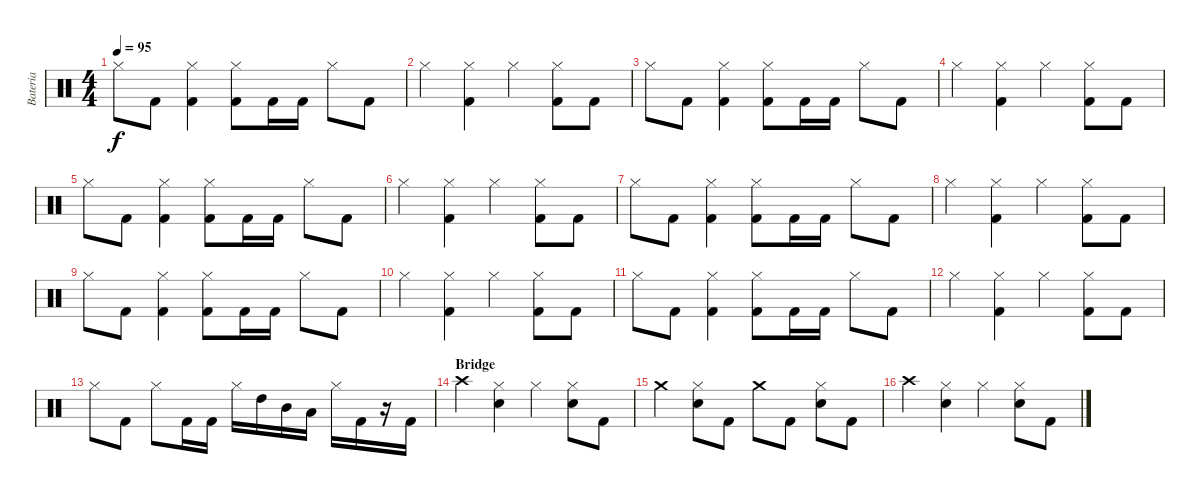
\track ("Bateria" "Bateria") {instrument percussion}
\staff {score}
\articulation defaults
\ts (4 4)
\tempo 95
\clef neutral
\ks c "Hi-Hat (closed)".8{dy f} "Kick (hit) 2".8
("Hi-Hat (closed)" "Kick (hit) 2").4 ("Hi-Hat (closed)" "Kick (hit) 2").8 "Kick (hit) 2".16 "Kick (hit) 2".16 "Hi-Hat (closed)".8 "Kick (hit) 2".8 |
"Hi-Hat (closed)".4 ("Hi-Hat (closed)" "Kick (hit) 2").4 "Hi-Hat (closed)".4 ("Hi-Hat (closed)" "Kick (hit) 2").8 "Kick (hit) 2".8 |
"Hi-Hat (closed)".8 "Kick (hit) 2".8 ("Hi-Hat (closed)" "Kick (hit) 2").4 ("Hi-Hat (closed)" "Kick (hit) 2").8 "Kick (hit) 2".16 "Kick (hit) 2".16 "Hi-Hat (closed)".8 "Kick (hit) 2".8 |
"Hi-Hat (closed)".4 ("Hi-Hat (closed)" "Kick (hit) 2").4 "Hi-Hat (closed)".4 ("Hi-Hat (closed)" "Kick (hit) 2").8 "Kick (hit) 2".8 |
"Hi-Hat (closed)".8 "Kick (hit) 2".8 ("Hi-Hat (closed)" "Kick (hit) 2").4 ("Hi-Hat (closed)" "Kick (hit) 2").8 "Kick (hit) 2".16 "Kick (hit) 2".16 "Hi-Hat (closed)".8 "Kick (hit) 2".8 |
"Hi-Hat (closed)".4 ("Hi-Hat (closed)" "Kick (hit) 2").4 "Hi-Hat (closed)".4 ("Hi-Hat (closed)" "Kick (hit) 2").8 "Kick (hit) 2".8 |
"Hi-Hat (closed)".8 "Kick (hit) 2".8 ("Hi-Hat (closed)" "Kick (hit) 2").4 ("Hi-Hat (closed)" "Kick (hit) 2").8 "Kick (hit) 2".16 "Kick (hit) 2".16 "Hi-Hat (closed)".8 "Kick (hit) 2".8 |
"Hi-Hat (closed)".4 ("Hi-Hat (closed)" "Kick (hit) 2").4 "Hi-Hat (closed)".4 ("Hi-Hat (closed)" "Kick (hit) 2").8 "Kick (hit) 2".8 |
"Hi-Hat (closed)".8 "Kick (hit) 2".8 ("Hi-Hat (closed)" "Kick (hit) 2").4 ("Hi-Hat (closed)" "Kick (hit) 2").8 "Kick (hit) 2".16 "Kick (hit) 2".16 "Hi-Hat (closed)".8 "Kick (hit) 2".8 |
"Hi-Hat (closed)".4 ("Hi-Hat (closed)" "Kick (hit) 2").4 "Hi-Hat (closed)".4 ("Hi-Hat (closed)" "Kick (hit) 2").8 "Kick (hit) 2".8 |
"Hi-Hat (closed)".8 "Kick (hit) 2".8 ("Hi-Hat (closed)" "Kick (hit) 2").4 ("Hi-Hat (closed)" "Kick (hit) 2").8 "Kick (hit) 2".16 "Kick (hit) 2".16 "Hi-Hat (closed)".8 "Kick (hit) 2".8 |
"Hi-Hat (closed)".4 ("Hi-Hat (closed)" "Kick (hit) 2").4 "Hi-Hat (closed)".4 ("Hi-Hat (closed)" "Kick (hit) 2").8 "Kick (hit) 2".8 |
"Hi-Hat (closed)".8 "Kick (hit) 2".8 "Hi-Hat (closed)".8 "Kick (hit) 2".16 "Kick (hit) 2".16 "Hi-Hat (closed)".16 "High Tom (hit)".16 "Mid Tom (hit)".16 "Low Tom (hit)".16 "Hi-Hat (closed)".16 "Kick (hit) 2".16 r.16 "Kick (hit) 2".16 |
\section ("" "Bridge")
"Crash high (hit)".4 ("Hi-Hat (closed)" "Snare (hit) 2").4 "Hi-Hat (closed)".4 ("Hi-Hat (closed)" "Snare (hit) 2").8 "Kick (hit) 2".8 |
"Crash medium (hit)".4 ("Hi-Hat (closed)" "Snare (hit) 2").8 "Kick (hit) 2".8 "Crash medium (hit)".8 "Kick (hit) 2".8 ("Hi-Hat (closed)" "Snare (hit) 2").8 "Kick (hit) 2".8 |
"Crash high (hit)".4 ("Hi-Hat (closed)" "Snare (hit) 2").4 "Hi-Hat (closed)".4 ("Hi-Hat (closed)" "Snare (hit) 2").8 "Kick (hit) 2".8
